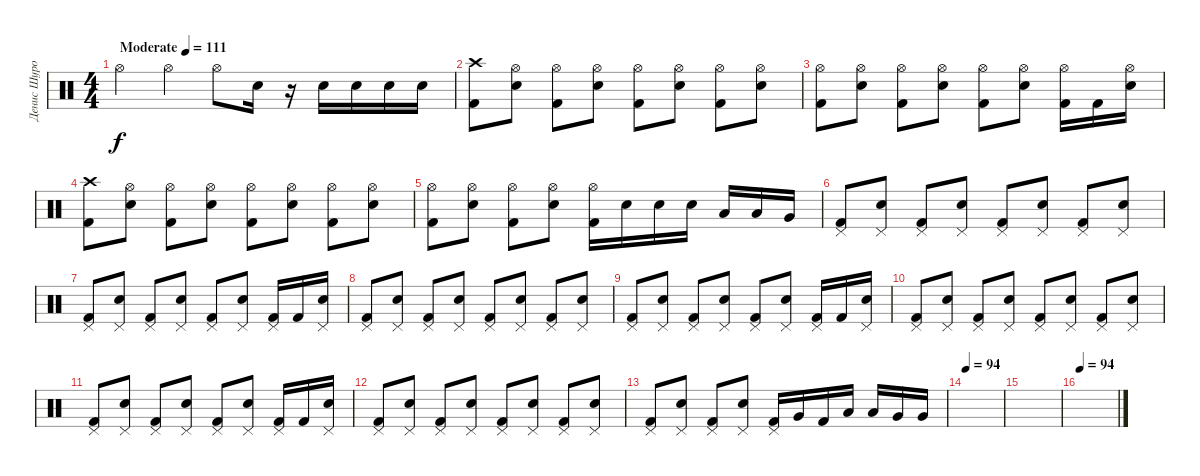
\track ("Денис Шуров" "Денис Шуро") {instrument percussion}
\staff {score}
\articulation defaults
\ts (4 4)
\tempo (111 "Moderate")
\clef neutral
\ks c "Hi-Hat (open)".4{dy f} "Hi-Hat (open)".4 "Hi-Hat (open)".8 "Electric Snare (hit)".16
r.16 "Electric Snare (hit)".16 "Electric Snare (hit)".16 "Electric Snare (hit)".16 "Electric Snare (hit)".16 |
("Crash high (hit)" "Kick (hit) 2").8 ("Hi-Hat (open)" "Electric Snare (hit)").8 ("Hi-Hat (open)" "Kick (hit) 2").8 ("Hi-Hat (open)" "Electric Snare (hit)").8 ("Hi-Hat (open)" "Kick (hit) 2").8 ("Hi-Hat (open)" "Electric Snare (hit)").8 ("Hi-Hat (open)" "Kick (hit) 2").8 ("Hi-Hat (open)" "Electric Snare (hit)").8 |
("Hi-Hat (open)" "Kick (hit) 2").8 ("Hi-Hat (open)" "Electric Snare (hit)").8 ("Hi-Hat (open)" "Kick (hit) 2").8 ("Hi-Hat (open)" "Electric Snare (hit)").8 ("Hi-Hat (open)" "Kick (hit) 2").8 ("Hi-Hat (open)" "Electric Snare (hit)").8 ("Hi-Hat (open)" "Kick (hit) 2").16 "Kick (hit) 2".16 ("Hi-Hat (open)" "Electric Snare (hit)").16 |
("Crash high (hit)" "Kick (hit) 2").8 ("Hi-Hat (open)" "Electric Snare (hit)").8 ("Hi-Hat (open)" "Kick (hit) 2").8 ("Hi-Hat (open)" "Electric Snare (hit)").8 ("Hi-Hat (open)" "Kick (hit) 2").8 ("Hi-Hat (open)" "Electric Snare (hit)").8 ("Hi-Hat (open)" "Kick (hit) 2").8 ("Hi-Hat (open)" "Electric Snare (hit)").8 |
("Hi-Hat (open)" "Kick (hit) 2").8 ("Hi-Hat (open)" "Electric Snare (hit)").8 ("Hi-Hat (open)" "Kick (hit) 2").8 ("Hi-Hat (open)" "Electric Snare (hit)").8 ("Hi-Hat (open)" "Kick (hit) 2").16 "Electric Snare (hit)".16 "Electric Snare (hit)".16 "Electric Snare (hit)".16 "Low Tom (hit)".16 "Low Tom (hit)".16 "Very Low Tom (hit)".16 |
("Pedal Hi-Hat (hit)" "Kick (hit) 2").8 ("Pedal Hi-Hat (hit)" "Electric Snare (hit)").8 ("Pedal Hi-Hat (hit)" "Kick (hit) 2").8 ("Pedal Hi-Hat (hit)" "Electric Snare (hit)").8 ("Pedal Hi-Hat (hit)" "Kick (hit) 2").8 ("Pedal Hi-Hat (hit)" "Electric Snare (hit)").8 ("Pedal Hi-Hat (hit)" "Kick (hit) 2").8 ("Pedal Hi-Hat (hit)" "Electric Snare (hit)").8 |
("Pedal Hi-Hat (hit)" "Kick (hit) 2").8 ("Pedal Hi-Hat (hit)" "Electric Snare (hit)").8 ("Pedal Hi-Hat (hit)" "Kick (hit) 2").8 ("Pedal Hi-Hat (hit)" "Electric Snare (hit)").8 ("Pedal Hi-Hat (hit)" "Kick (hit) 2").8 ("Pedal Hi-Hat (hit)" "Electric Snare (hit)").8 ("Pedal Hi-Hat (hit)" "Kick (hit) 2").16 "Kick (hit) 2".16 ("Pedal Hi-Hat (hit)" "Electric Snare (hit)").16 |
("Pedal Hi-Hat (hit)" "Kick (hit) 2").8 ("Pedal Hi-Hat (hit)" "Electric Snare (hit)").8 ("Pedal Hi-Hat (hit)" "Kick (hit) 2").8 ("Pedal Hi-Hat (hit)" "Electric Snare (hit)").8 ("Pedal Hi-Hat (hit)" "Kick (hit) 2").8 ("Pedal Hi-Hat (hit)" "Electric Snare (hit)").8 ("Pedal Hi-Hat (hit)" "Kick (hit) 2").8 ("Pedal Hi-Hat (hit)" "Electric Snare (hit)").8 |
("Pedal Hi-Hat (hit)" "Kick (hit) 2").8 ("Pedal Hi-Hat (hit)" "Electric Snare (hit)").8 ("Pedal Hi-Hat (hit)" "Kick (hit) 2").8 ("Pedal Hi-Hat (hit)" "Electric Snare (hit)").8 ("Pedal Hi-Hat (hit)" "Kick (hit) 2").8 ("Pedal Hi-Hat (hit)" "Electric Snare (hit)").8 ("Pedal Hi-Hat (hit)" "Kick (hit) 2").16 "Kick (hit) 2".16 ("Pedal Hi-Hat (hit)" "Electric Snare (hit)").16 |
("Pedal Hi-Hat (hit)" "Kick (hit) 2").8 ("Pedal Hi-Hat (hit)" "Electric Snare (hit)").8 ("Pedal Hi-Hat (hit)" "Kick (hit) 2").8 ("Pedal Hi-Hat (hit)" "Electric Snare (hit)").8 ("Pedal Hi-Hat (hit)" "Kick (hit) 2").8 ("Pedal Hi-Hat (hit)" "Electric Snare (hit)").8 ("Pedal Hi-Hat (hit)" "Kick (hit) 2").8 ("Pedal Hi-Hat (hit)" "Electric Snare (hit)").8 |
("Pedal Hi-Hat (hit)" "Kick (hit) 2").8 ("Pedal Hi-Hat (hit)" "Electric Snare (hit)").8 ("Pedal Hi-Hat (hit)" "Kick (hit) 2").8 ("Pedal Hi-Hat (hit)" "Electric Snare (hit)").8 ("Pedal Hi-Hat (hit)" "Kick (hit) 2").8 ("Pedal Hi-Hat (hit)" "Electric Snare (hit)").8 ("Pedal Hi-Hat (hit)" "Kick (hit) 2").16 "Kick (hit) 2".16 ("Pedal Hi-Hat (hit)" "Electric Snare (hit)").16 |
("Pedal Hi-Hat (hit)" "Kick (hit) 2").8 ("Pedal Hi-Hat (hit)" "Electric Snare (hit)").8 ("Pedal Hi-Hat (hit)" "Kick (hit) 2").8 ("Pedal Hi-Hat (hit)" "Electric Snare (hit)").8 ("Pedal Hi-Hat (hit)" "Kick (hit) 2").8 ("Pedal Hi-Hat (hit)" "Electric Snare (hit)").8 ("Pedal Hi-Hat (hit)" "Kick (hit) 2").8 ("Pedal Hi-Hat (hit)" "Electric Snare (hit)").8 |
("Pedal Hi-Hat (hit)" "Kick (hit) 2").8 ("Pedal Hi-Hat (hit)" "Electric Snare (hit)").8 ("Pedal Hi-Hat (hit)" "Kick (hit) 2").8 ("Pedal Hi-Hat (hit)" "Electric Snare (hit)").8 ("Pedal Hi-Hat (hit)" "Kick (hit) 2").16 "Very Low Tom (hit)".16 "Kick (hit) 2".16 "Low Tom (hit)".16 "Low Tom (hit)".16 "Very Low Tom (hit)".16 "Very Low Tom (hit)".16 |
\tempo 94
|
|
\tempo 94
